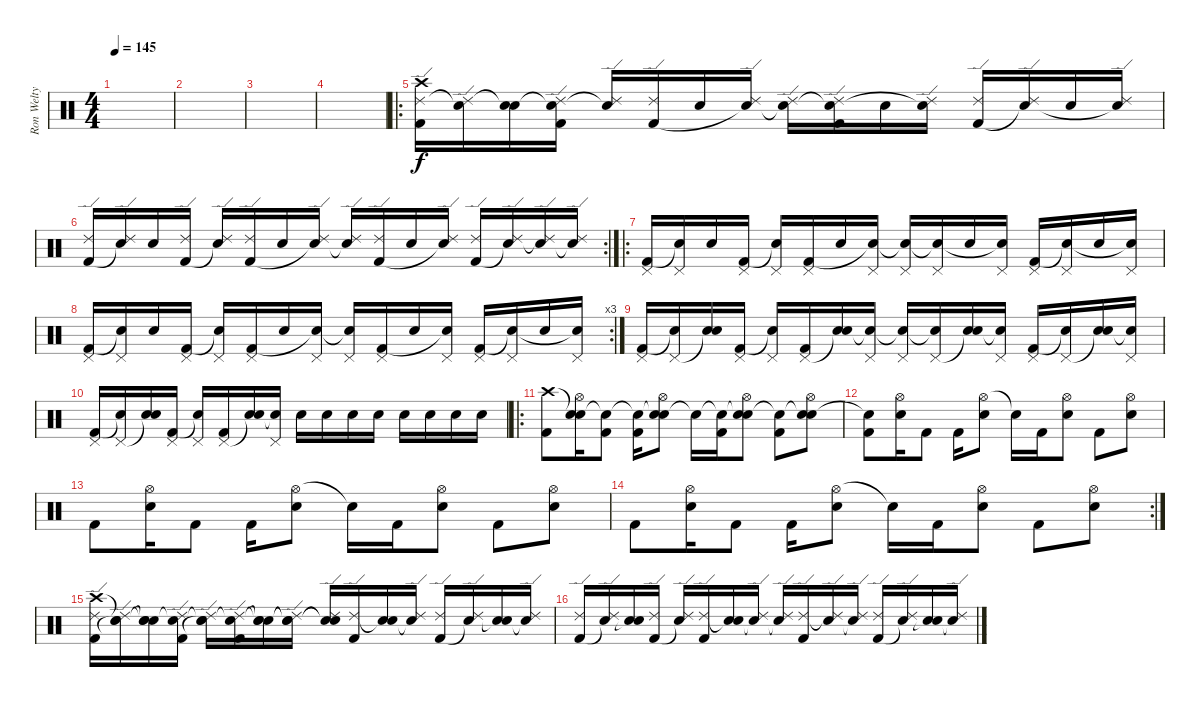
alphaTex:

\track ("Ron Welty" "Ron Welty") {instrument percussion}
\staff {score}
\articulation defaults
\ts (4 4)
\tempo 145
\clef neutral
\ks c
|
|
|
|
\ro
("Crash high (hit)" "Ride (edge) 2" "Kick (hit) 2").16 ("Ride (edge) 2" "Snare (hit)"{t}).16 ("Snare (hit)"{t} "Electric Snare (hit)").16 ("Ride (edge) 2" "Snare (hit)"{t} "Kick (hit) 2").16 ("Ride (edge) 2" "Snare (hit)"{t}).16 ("Ride (edge) 2" "Kick (hit) 2").16 "Electric Snare (hit)".16 ("Ride (edge) 2" "Snare (hit)"{t}).16 ("Ride (edge) 2" "Electric Snare (hit)"{t}).16 ("Ride (edge) 2" "Snare (hit)"{t} "Kick (hit) 2").16 "Electric Snare (hit)".16 ("Ride (edge) 2" "Snare (hit)"{t}).16 ("Ride (edge) 2" "Kick (hit) 2").16 ("Ride (edge) 2" "Snare (hit)"{t}).16 "Electric Snare (hit)".16 ("Ride (edge) 2" "Snare (hit)"{t}).16 |
\rc 2
("Ride (edge) 2" "Kick (hit) 2").16 ("Ride (edge) 2" "Snare (hit)"{t}).16 "Electric Snare (hit)".16 ("Ride (edge) 2" "Kick (hit) 2").16 ("Ride (edge) 2" "Snare (hit)"{t}).16 ("Ride (edge) 2" "Kick (hit) 2").16 "Electric Snare (hit)".16 ("Ride (edge) 2" "Snare (hit)"{t}).16 ("Ride (edge) 2" "Snare (hit)"{t}).16 ("Ride (edge) 2" "Kick (hit) 2").16 "Electric Snare (hit)".16 ("Ride (edge) 2" "Snare (hit)"{t}).16 ("Ride (edge) 2" "Kick (hit) 2").16 ("Ride (edge) 2" "Snare (hit)"{t}).16 ("Ride (edge) 2"{t} "Electric Snare (hit)").16 ("Ride (edge) 2" "Snare (hit)"{t}).16 |
\ro
("Pedal Hi-Hat (hit)" "Kick (hit) 2").16 ("Pedal Hi-Hat (hit)" "Snare (hit)"{t}).16 "Electric Snare (hit)".16 ("Pedal Hi-Hat (hit)" "Kick (hit) 2").16 ("Pedal Hi-Hat (hit)" "Snare (hit)"{t}).16 ("Pedal Hi-Hat (hit)" "Kick (hit) 2").16 "Electric Snare (hit)".16 ("Pedal Hi-Hat (hit)" "Snare (hit)"{t}).16 ("Pedal Hi-Hat (hit)" "Snare (hit)"{t}).16 ("Pedal Hi-Hat (hit)" "Snare (hit)"{t}).16 "Electric Snare (hit)".16 ("Pedal Hi-Hat (hit)" "Snare (hit)"{t}).16 ("Pedal Hi-Hat (hit)" "Kick (hit) 2").16 ("Pedal Hi-Hat (hit)" "Snare (hit)"{t}).16 "Electric Snare (hit)".16 ("Pedal Hi-Hat (hit)" "Snare (hit)"{t}).16 |
\rc 3
("Pedal Hi-Hat (hit)" "Kick (hit) 2").16 ("Pedal Hi-Hat (hit)" "Snare (hit)"{t}).16 "Electric Snare (hit)".16 ("Pedal Hi-Hat (hit)" "Kick (hit) 2").16 ("Pedal Hi-Hat (hit)" "Snare (hit)"{t}).16 ("Pedal Hi-Hat (hit)" "Kick (hit) 2").16 "Electric Snare (hit)".16 ("Pedal Hi-Hat (hit)" "Snare (hit)"{t}).16 ("Pedal Hi-Hat (hit)" "Snare (hit)"{t}).16 ("Pedal Hi-Hat (hit)" "Kick (hit) 2").16 "Electric Snare (hit)".16 ("Pedal Hi-Hat (hit)" "Snare (hit)"{t}).16 ("Pedal Hi-Hat (hit)" "Kick (hit) 2").16 ("Pedal Hi-Hat (hit)" "Snare (hit)"{t}).16 "Electric Snare (hit)".16 ("Pedal Hi-Hat (hit)" "Snare (hit)"{t}).16 |
("Pedal Hi-Hat (hit)" "Kick (hit) 2").16 ("Pedal Hi-Hat (hit)" "Snare (hit)"{t}).16 ("Snare (hit)"{t} "Electric Snare (hit)").16 ("Pedal Hi-Hat (hit)" "Kick (hit) 2").16 ("Pedal Hi-Hat (hit)" "Snare (hit)"{t}).16 ("Pedal Hi-Hat (hit)" "Kick (hit) 2").16 ("Snare (hit)"{t} "Electric Snare (hit)").16 ("Pedal Hi-Hat (hit)" "Snare (hit)"{t}).16 ("Pedal Hi-Hat (hit)" "Snare (hit)"{t}).16 ("Pedal Hi-Hat (hit)" "Snare (hit)"{t}).16 ("Snare (hit)"{t} "Electric Snare (hit)").16 ("Pedal Hi-Hat (hit)" "Snare (hit)"{t}).16 ("Pedal Hi-Hat (hit)" "Kick (hit) 2").16 ("Pedal Hi-Hat (hit)" "Snare (hit)"{t}).16 ("Snare (hit)"{t} "Electric Snare (hit)").16 ("Pedal Hi-Hat (hit)" "Snare (hit)"{t}).16 |
("Pedal Hi-Hat (hit)" "Kick (hit) 2").16 ("Pedal Hi-Hat (hit)" "Snare (hit)"{t}).16 ("Snare (hit)"{t} "Electric Snare (hit)").16 ("Pedal Hi-Hat (hit)" "Kick (hit) 2").16 ("Pedal Hi-Hat (hit)" "Snare (hit)"{t}).16 ("Pedal Hi-Hat (hit)" "Kick (hit) 2").16 ("Snare (hit)"{t} "Electric Snare (hit)").16 ("Pedal Hi-Hat (hit)" "Snare (hit)"{t}).16 "Electric Snare (hit)".16 "Electric Snare (hit)".16 "Electric Snare (hit)".16 "Electric Snare (hit)".16 "Electric Snare (hit)".16 "Electric Snare (hit)".16 "Electric Snare (hit)".16 "Electric Snare (hit)".16 |
\ro
("Crash high (hit)" "Kick (hit) 2").8 ("Snare (hit)"{t} "Hi-Hat (open)" "Electric Snare (hit)").16 ("Snare (hit)"{t} "Kick (hit) 2").8 ("Snare (hit)"{t} "Kick (hit) 2").16 ("Snare (hit)"{t} "Hi-Hat (open)" "Electric Snare (hit)").8 "Snare (hit)"{t}.16 ("Snare (hit)"{t} "Kick (hit) 2").16 ("Snare (hit)"{t} "Hi-Hat (open)" "Electric Snare (hit)").8 ("Snare (hit)"{t} "Kick (hit) 2").8 ("Snare (hit)"{t} "Hi-Hat (open)" "Electric Snare (hit)").8 |
("Snare (hit)"{t} "Kick (hit) 2").8 ("Hi-Hat (open)" "Electric Snare (hit)").16 "Kick (hit) 2".8 "Kick (hit) 2".16 ("Hi-Hat (open)" "Electric Snare (hit)").8 "Snare (hit)"{t}.16 "Kick (hit) 2".16 ("Hi-Hat (open)" "Electric Snare (hit)").8 "Kick (hit) 2".8 ("Hi-Hat (open)" "Electric Snare (hit)").8 |
"Kick (hit) 2".8 ("Hi-Hat (open)" "Electric Snare (hit)").16 "Kick (hit) 2".8 "Kick (hit) 2".16 ("Hi-Hat (open)" "Electric Snare (hit)").8 "Snare (hit)"{t}.16 "Kick (hit) 2".16 ("Hi-Hat (open)" "Electric Snare (hit)").8 "Kick (hit) 2".8 ("Hi-Hat (open)" "Electric Snare (hit)").8 |
\rc 2 "Kick (hit) 2".8
("Hi-Hat (open)" "Electric Snare (hit)").16 "Kick (hit) 2".8 "Kick (hit) 2".16 ("Hi-Hat (open)" "Electric Snare (hit)").8 "Snare (hit)"{t}.16 "Kick (hit) 2".16 ("Hi-Hat (open)" "Electric Snare (hit)").8 "Kick (hit) 2".8 ("Hi-Hat (open)" "Electric Snare (hit)").8 |
("Crash high (hit)" "Ride (edge) 2" "Kick (hit) 2").16 ("Snare (hit)"{t} "Ride (edge) 2" "Snare (hit)"{t}).16 ("Snare (hit)"{t} "Snare (hit)"{t} "Electric Snare (hit)").16 ("Snare (hit)"{t} "Ride (edge) 2" "Kick (hit) 2").16 ("Snare (hit)"{t} "Ride (edge) 2" "Snare (hit)"{t}).16 ("Snare (hit)"{t} "Ride (edge) 2" "Kick (hit) 2").16 ("Snare (hit)"{t} "Snare (hit)"{t} "Electric Snare (hit)").16 ("Snare (hit)"{t} "Ride (edge) 2" "Snare (hit)"{t}).16 ("Snare (hit)"{t} "Ride (edge) 2" "Snare (hit)"{t}).16 ("Ride (edge) 2" "Kick (hit) 2").16 ("Snare (hit)"{t} "Electric Snare (hit)").16 ("Ride (edge) 2" "Snare (hit)"{t}).16 ("Ride (edge) 2" "Kick (hit) 2").16 ("Ride (edge) 2" "Snare (hit)"{t}).16 ("Snare (hit)"{t} "Electric Snare (hit)").16 ("Ride (edge) 2" "Snare (hit)"{t}).16 |
("Ride (edge) 2" "Kick (hit) 2").16 ("Ride (edge) 2" "Snare (hit)"{t}).16 ("Snare (hit)"{t} "Electric Snare (hit)").16 ("Ride (edge) 2" "Kick (hit) 2").16 ("Ride (edge) 2" "Snare (hit)"{t}).16 ("Ride (edge) 2" "Kick (hit) 2").16 ("Snare (hit)"{t} "Electric Snare (hit)").16 ("Ride (edge) 2" "Snare (hit)"{t}).16 ("Ride (edge) 2" "Snare (hit)"{t}).16 ("Ride (edge) 2" "Kick (hit) 2").16 ("Ride (edge) 2"{t} "Electric Snare (hit)").16 ("Ride (edge) 2" "Snare (hit)"{t}).16 ("Ride (edge) 2" "Kick (hit) 2").16 ("Ride (edge) 2" "Snare (hit)"{t}).16 ("Snare (hit)"{t} "Electric Snare (hit)").16 ("Ride (edge) 2" "Snare (hit)"{t}).16
